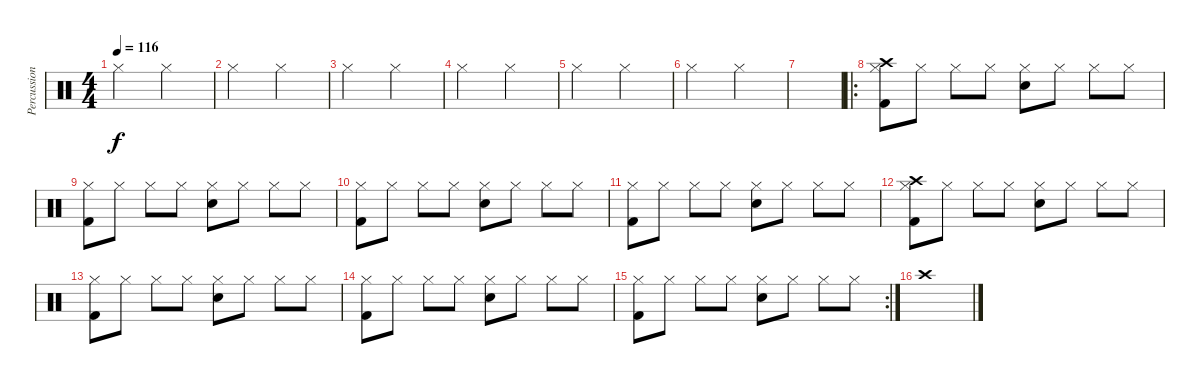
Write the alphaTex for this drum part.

\track ("Percussion" "Percussion") {instrument percussion}
\staff {score}
\articulation defaults
\ts (4 4)
\tempo 116
\clef neutral
\ks c "Hi-Hat (closed)".2{dy f} "Hi-Hat (closed)".2
|
"Hi-Hat (closed)".2 "Hi-Hat (closed)".2 |
"Hi-Hat (closed)".2 "Hi-Hat (closed)".2 |
"Hi-Hat (closed)".2 "Hi-Hat (closed)".2 |
"Hi-Hat (closed)".2 "Hi-Hat (closed)".2 |
"Hi-Hat (closed)".2 "Hi-Hat (closed)".2 |
|
\ro
("Crash high (hit)" "Hi-Hat (closed)" "Kick (hit) 2").8 "Hi-Hat (closed)".8 "Hi-Hat (closed)".8 "Hi-Hat (closed)".8 ("Hi-Hat (closed)" "Snare (hit) 2").8 "Hi-Hat (closed)".8 "Hi-Hat (closed)".8 "Hi-Hat (closed)".8 |
("Hi-Hat (closed)" "Kick (hit) 2").8 "Hi-Hat (closed)".8 "Hi-Hat (closed)".8 "Hi-Hat (closed)".8 ("Hi-Hat (closed)" "Snare (hit) 2").8 "Hi-Hat (closed)".8 "Hi-Hat (closed)".8 "Hi-Hat (closed)".8 |
("Hi-Hat (closed)" "Kick (hit) 2").8 "Hi-Hat (closed)".8 "Hi-Hat (closed)".8 "Hi-Hat (closed)".8 ("Hi-Hat (closed)" "Snare (hit) 2").8 "Hi-Hat (closed)".8 "Hi-Hat (closed)".8 "Hi-Hat (closed)".8 |
("Hi-Hat (closed)" "Kick (hit) 2").8 "Hi-Hat (closed)".8 "Hi-Hat (closed)".8 "Hi-Hat (closed)".8 ("Hi-Hat (closed)" "Snare (hit) 2").8 "Hi-Hat (closed)".8 "Hi-Hat (closed)".8 "Hi-Hat (closed)".8 |
("Crash high (hit)" "Hi-Hat (closed)" "Kick (hit) 2").8 "Hi-Hat (closed)".8 "Hi-Hat (closed)".8 "Hi-Hat (closed)".8 ("Hi-Hat (closed)" "Snare (hit) 2").8 "Hi-Hat (closed)".8 "Hi-Hat (closed)".8 "Hi-Hat (closed)".8 |
("Hi-Hat (closed)" "Kick (hit) 2").8 "Hi-Hat (closed)".8 "Hi-Hat (closed)".8 "Hi-Hat (closed)".8 ("Hi-Hat (closed)" "Snare (hit) 2").8 "Hi-Hat (closed)".8 "Hi-Hat (closed)".8 "Hi-Hat (closed)".8 |
("Hi-Hat (closed)" "Kick (hit) 2").8 "Hi-Hat (closed)".8 "Hi-Hat (closed)".8 "Hi-Hat (closed)".8 ("Hi-Hat (closed)" "Snare (hit) 2").8 "Hi-Hat (closed)".8 "Hi-Hat (closed)".8 "Hi-Hat (closed)".8 |
\rc 2
("Hi-Hat (closed)" "Kick (hit) 2").8 "Hi-Hat (closed)".8 "Hi-Hat (closed)".8 "Hi-Hat (closed)".8 ("Hi-Hat (closed)" "Snare (hit) 2").8 "Hi-Hat (closed)".8 "Hi-Hat (closed)".8 "Hi-Hat (closed)".8 |
"Crash high (hit)".1
